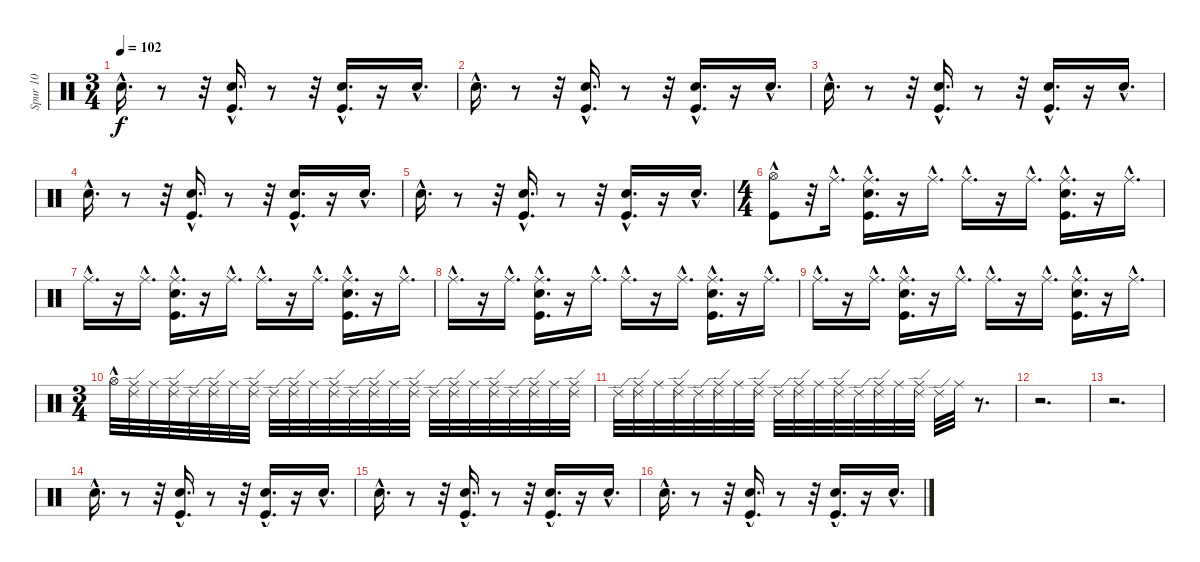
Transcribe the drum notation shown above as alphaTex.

\track ("Spur 10" "Spur 10") {instrument percussion}
\staff {score}
\articulation defaults
\ts (3 4)
\tempo 102
\clef neutral
\ks c "Snare (hit) 2"{hac}.16{d dy f}
r.8 r.32 ("Kick (hit)"{hac} "Snare (hit) 2"{hac}).16{d} r.8 r.32 ("Kick (hit)"{hac} "Snare (hit) 2"{hac}).16{d} r.16 "Hand Clap (hit)"{hac}.16{d} |
"Snare (hit) 2"{hac}.16{d} r.8 r.32 ("Kick (hit)"{hac} "Snare (hit) 2"{hac}).16{d} r.8 r.32 ("Kick (hit)"{hac} "Snare (hit) 2"{hac}).16{d} r.16 "Hand Clap (hit)"{hac}.16{d} |
"Snare (hit) 2"{hac}.16{d} r.8 r.32 ("Kick (hit)"{hac} "Snare (hit) 2"{hac}).16{d} r.8 r.32 ("Kick (hit)"{hac} "Snare (hit) 2"{hac}).16{d} r.16 "Hand Clap (hit)"{hac}.16{d} |
"Snare (hit) 2"{hac}.16{d} r.8 r.32 ("Kick (hit)"{hac} "Snare (hit) 2"{hac}).16{d} r.8 r.32 ("Kick (hit)"{hac} "Snare (hit) 2"{hac}).16{d} r.16 "Hand Clap (hit)"{hac}.16{d} |
"Snare (hit) 2"{hac}.16{d} r.8 r.32 ("Kick (hit)"{hac} "Snare (hit) 2"{hac}).16{d} r.8 r.32 ("Kick (hit)"{hac} "Snare (hit) 2"{hac}).16{d} r.16 "Hand Clap (hit)"{hac}.16{d} |
\ts (4 4)
("Kick (hit)" "Hi-Hat (open)"{hac}).8 r.32 "Ride (middle)"{hac}.16{d} ("Ride (middle)"{hac} "Hand Clap (hit)"{hac} "Kick (hit)"{hac}).16{d} r.16 "Ride (middle)"{hac}.16{d} "Ride (middle)"{hac}.16{d} r.16 "Ride (middle)"{hac}.16{d} ("Ride (middle)"{hac} "Hand Clap (hit)"{hac} "Kick (hit)"{hac}).16{d} r.16 "Ride (middle)"{hac}.16{d} |
"Ride (middle)"{hac}.16{d} r.16 "Ride (middle)"{hac}.16{d} ("Ride (middle)"{hac} "Kick (hit)"{hac} "Hand Clap (hit)"{hac}).16{d} r.16 "Ride (middle)"{hac}.16{d} "Ride (middle)"{hac}.16{d} r.16 "Ride (middle)"{hac}.16{d} ("Ride (middle)"{hac} "Kick (hit)"{hac} "Hand Clap (hit)"{hac}).16{d} r.16 "Ride (middle)"{hac}.16{d} |
"Ride (middle)"{hac}.16{d} r.16 "Ride (middle)"{hac}.16{d} ("Ride (middle)"{hac} "Kick (hit)"{hac} "Hand Clap (hit)"{hac}).16{d} r.16 "Ride (middle)"{hac}.16{d} "Ride (middle)"{hac}.16{d} r.16 "Ride (middle)"{hac}.16{d} ("Ride (middle)"{hac} "Kick (hit)"{hac} "Hand Clap (hit)"{hac}).16{d} r.16 "Ride (middle)"{hac}.16{d} |
"Ride (middle)"{hac}.16{d} r.16 "Ride (middle)"{hac}.16{d} ("Ride (middle)"{hac} "Kick (hit)"{hac} "Hand Clap (hit)"{hac}).16{d} r.16 "Ride (middle)"{hac}.16{d} "Ride (middle)"{hac}.16{d} r.16 "Ride (middle)"{hac}.16{d} ("Ride (middle)"{hac} "Kick (hit)"{hac} "Hand Clap (hit)"{hac}).16{d} r.16 "Ride (middle)"{hac}.16{d} |
\ts (3 4)
"Hi-Hat (open)"{hac}.32 ("Ride (middle)" "Ride (edge) 2").32 "Ride (middle)".32 ("Ride (edge) 2" "Ride (middle)").32 "Ride (edge) 2".32 ("Ride (middle)" "Ride (edge) 2").32 "Ride (middle)".32 ("Ride (edge) 2" "Ride (middle)").32 "Ride (edge) 2".32 ("Ride (middle)" "Ride (edge) 2").32 "Ride (middle)".32 ("Ride (edge) 2" "Ride (middle)").32 "Ride (edge) 2".32 ("Ride (middle)" "Ride (edge) 2").32 "Ride (middle)".32 ("Ride (edge) 2" "Ride (middle)").32 "Ride (edge) 2".32 ("Ride (middle)" "Ride (edge) 2").32 "Ride (middle)".32 ("Ride (edge) 2" "Ride (middle)").32 "Ride (edge) 2".32 ("Ride (middle)" "Ride (edge) 2").32 "Ride (middle)".32 ("Ride (edge) 2" "Ride (middle)").32 |
"Ride (edge) 2".32 ("Ride (middle)" "Ride (edge) 2").32 "Ride (middle)".32 ("Ride (edge) 2" "Ride (middle)").32 "Ride (edge) 2".32 ("Ride (middle)" "Ride (edge) 2").32 "Ride (middle)".32 ("Ride (edge) 2" "Ride (middle)").32 "Ride (edge) 2".32 ("Ride (middle)" "Ride (edge) 2").32 "Ride (middle)".32 ("Ride (edge) 2" "Ride (middle)").32 "Ride (edge) 2".32 ("Ride (middle)" "Ride (edge) 2").32 "Ride (middle)".32 ("Ride (edge) 2" "Ride (middle)").32 "Ride (edge) 2".32 "Ride (middle)".32 r.8{d} |
r.2{d} |
r.2{d} |
"Snare (hit) 2"{hac}.16{d} r.8 r.32 ("Kick (hit)"{hac} "Snare (hit) 2"{hac}).16{d} r.8 r.32 ("Kick (hit)"{hac} "Snare (hit) 2"{hac}).16{d} r.16 "Hand Clap (hit)"{hac}.16{d} |
"Snare (hit) 2"{hac}.16{d} r.8 r.32 ("Kick (hit)"{hac} "Snare (hit) 2"{hac}).16{d} r.8 r.32 ("Kick (hit)"{hac} "Snare (hit) 2"{hac}).16{d} r.16 "Hand Clap (hit)"{hac}.16{d} |
"Snare (hit) 2"{hac}.16{d} r.8 r.32 ("Kick (hit)"{hac} "Snare (hit) 2"{hac}).16{d} r.8 r.32 ("Kick (hit)"{hac} "Snare (hit) 2"{hac}).16{d} r.16 "Hand Clap (hit)"{hac}.16{d}
